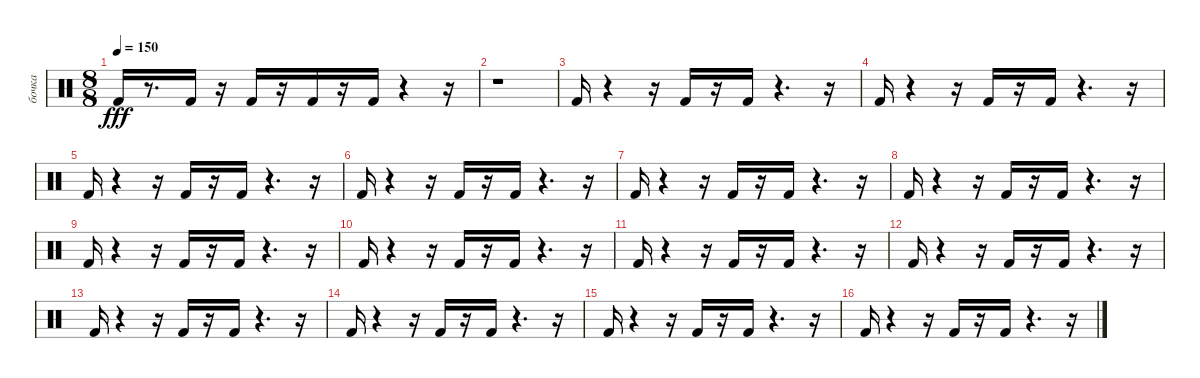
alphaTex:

\track ("бочка" "бочка") {instrument percussion}
\staff {score}
\articulation defaults
\ts (8 8)
\tempo 150
\clef neutral
\ks c "Kick (hit) 2".16{dy fff}
r.8{d} "Kick (hit) 2".16 r.16 "Kick (hit) 2".16 r.16 "Kick (hit) 2".16 r.16 "Kick (hit) 2".16 r.4 r.16 |
r.1 |
"Kick (hit) 2".16 r.4 r.16 "Kick (hit) 2".16 r.16 "Kick (hit) 2".16 r.4{d} r.16 |
"Kick (hit) 2".16 r.4 r.16 "Kick (hit) 2".16 r.16 "Kick (hit) 2".16 r.4{d} r.16 |
"Kick (hit) 2".16 r.4 r.16 "Kick (hit) 2".16 r.16 "Kick (hit) 2".16 r.4{d} r.16 |
"Kick (hit) 2".16 r.4 r.16 "Kick (hit) 2".16 r.16 "Kick (hit) 2".16 r.4{d} r.16 |
"Kick (hit) 2".16 r.4 r.16 "Kick (hit) 2".16 r.16 "Kick (hit) 2".16 r.4{d} r.16 |
"Kick (hit) 2".16 r.4 r.16 "Kick (hit) 2".16 r.16 "Kick (hit) 2".16 r.4{d} r.16 |
"Kick (hit) 2".16 r.4 r.16 "Kick (hit) 2".16 r.16 "Kick (hit) 2".16 r.4{d} r.16 |
"Kick (hit) 2".16 r.4 r.16 "Kick (hit) 2".16 r.16 "Kick (hit) 2".16 r.4{d} r.16 |
"Kick (hit) 2".16 r.4 r.16 "Kick (hit) 2".16 r.16 "Kick (hit) 2".16 r.4{d} r.16 |
"Kick (hit) 2".16 r.4 r.16 "Kick (hit) 2".16 r.16 "Kick (hit) 2".16 r.4{d} r.16 |
"Kick (hit) 2".16 r.4 r.16 "Kick (hit) 2".16 r.16 "Kick (hit) 2".16 r.4{d} r.16 |
"Kick (hit) 2".16 r.4 r.16 "Kick (hit) 2".16 r.16 "Kick (hit) 2".16 r.4{d} r.16 |
"Kick (hit) 2".16 r.4 r.16 "Kick (hit) 2".16 r.16 "Kick (hit) 2".16 r.4{d} r.16 |
"Kick (hit) 2".16 r.4 r.16 "Kick (hit) 2".16 r.16 "Kick (hit) 2".16 r.4{d} r.16
